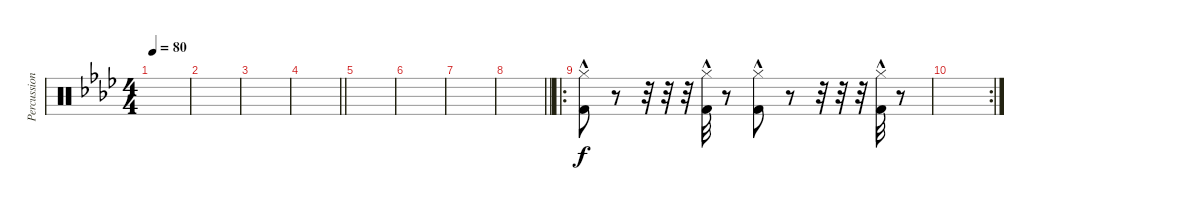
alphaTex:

\track ("Percussion" "Percussion") {instrument percussion}
\staff {score}
\articulation defaults
\ts (4 4)
\tempo 80
\clef neutral
\ks fminor
|
|
|
\barLineRight lightlight
|
|
|
|
\barLineRight lightlight
|
\ro
("Hi-Hat (closed)"{hac} "Kick (hit) 2"{hac}).8 r.8 r.32 r.32 r.32 ("Hi-Hat (closed)"{hac} "Kick (hit) 2"{hac}).32 r.8 ("Hi-Hat (closed)"{hac} "Kick (hit) 2"{hac}).8 r.8 r.32 r.32 r.32 ("Hi-Hat (closed)"{hac} "Kick (hit) 2"{hac}).32 r.8 |
\rc 2
